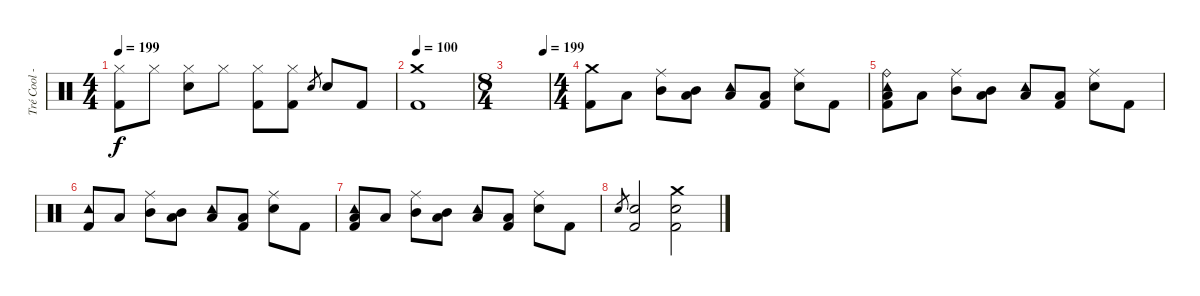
\track ("Tré Cool - Drums" "Tré Cool -") {instrument percussion}
\staff {score}
\articulation defaults
\ts (4 4)
\tempo 199
\clef neutral
\ks c
("Hi-Hat (closed)" "Kick (hit) 2").8{dy f} "Hi-Hat (closed)".8 ("Hi-Hat (closed)" "Electric Snare (hit)").8 "Hi-Hat (closed)".8 ("Hi-Hat (closed)" "Kick (hit) 2").8 ("Hi-Hat (closed)" "Kick (hit) 2").8 "Electric Snare (hit)".8{gr} "Electric Snare (hit)".8 "Kick (hit) 2".8 |
\tempo 100
("Crash medium (hit)" "Kick (hit) 2").1 |
\ts (8 4)
\tempo (199 0.875)
|
\ts (4 4)
("Crash medium (hit)" "Kick (hit) 2").8 "Low Floor Tom (hit)".8 ("Ride (middle)" "Mid Tom (hit)").8 ("Mid Tom (hit)" "Low Floor Tom (hit)").8 ("Tambourine (hit)" "Low Tom (hit)").8 ("Low Floor Tom (hit)" "Kick (hit) 2").8 ("Ride (middle)" "Electric Snare (hit)").8 "Kick (hit) 2".8 |
("Tambourine (hit)" "Ride (bell)" "Low Floor Tom (hit)" "Kick (hit) 2").8 "Low Floor Tom (hit)".8 ("Ride (middle)" "Mid Tom (hit)").8 ("Mid Tom (hit)" "Low Floor Tom (hit)").8 ("Tambourine (hit)" "Low Tom (hit)").8 ("Low Floor Tom (hit)" "Kick (hit) 2").8 ("Ride (middle)" "Electric Snare (hit)").8 "Kick (hit) 2".8 |
("Tambourine (hit)" "Kick (hit) 2").8 "Low Floor Tom (hit)".8 ("Ride (middle)" "Mid Tom (hit)").8 ("Mid Tom (hit)" "Low Floor Tom (hit)").8 ("Tambourine (hit)" "Low Tom (hit)").8 ("Low Floor Tom (hit)" "Kick (hit) 2").8 ("Ride (middle)" "Electric Snare (hit)").8 "Kick (hit) 2".8 |
("Tambourine (hit)" "Low Floor Tom (hit)" "Kick (hit) 2").8 "Low Floor Tom (hit)".8 ("Ride (middle)" "Mid Tom (hit)").8 ("Mid Tom (hit)" "Low Floor Tom (hit)").8 ("Tambourine (hit)" "Low Tom (hit)").8 ("Low Floor Tom (hit)" "Kick (hit) 2").8 ("Ride (middle)" "Electric Snare (hit)").8 "Kick (hit) 2".8 |
"Electric Snare (hit)".8{gr} ("Electric Snare (hit)" "Kick (hit) 2").2 ("Crash medium (hit)" "Electric Snare (hit)" "Kick (hit) 2").2
